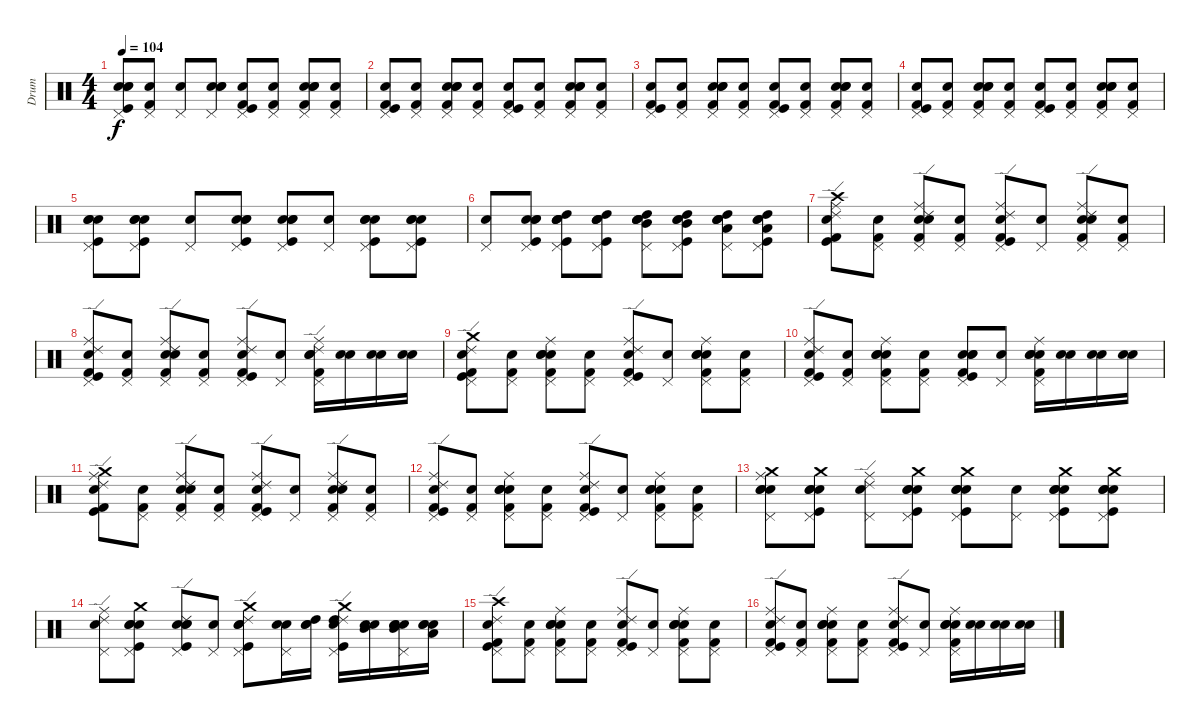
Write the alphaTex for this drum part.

\track ("Drum" "Drum") {instrument percussion}
\staff {score}
\articulation defaults
\ts (4 4)
\tempo 104
\clef neutral
\ks c
("Snare (hit)" "Kick (hit)" "Pedal Hi-Hat (hit)" "Snare (hit) 2" "Electric Snare (hit)").8{dy f} ("Snare (hit)" "Pedal Hi-Hat (hit)" "Kick (hit) 2").8 ("Snare (hit)" "Pedal Hi-Hat (hit)").8 ("Snare (hit)" "Pedal Hi-Hat (hit)" "Electric Snare (hit)" "Snare (hit) 2").8 ("Snare (hit)" "Kick (hit) 2" "Pedal Hi-Hat (hit)" "Kick (hit)").8 ("Snare (hit)" "Pedal Hi-Hat (hit)" "Kick (hit) 2").8 ("Snare (hit)" "Kick (hit) 2" "Snare (hit) 2" "Electric Snare (hit)" "Pedal Hi-Hat (hit)").8 ("Snare (hit)" "Pedal Hi-Hat (hit)" "Kick (hit) 2").8 |
("Snare (hit)" "Kick (hit) 2" "Pedal Hi-Hat (hit)" "Kick (hit)").8 ("Snare (hit)" "Pedal Hi-Hat (hit)" "Kick (hit) 2").8 ("Snare (hit)" "Kick (hit) 2" "Electric Snare (hit)" "Snare (hit) 2" "Pedal Hi-Hat (hit)").8 ("Snare (hit)" "Pedal Hi-Hat (hit)" "Kick (hit) 2").8 ("Snare (hit)" "Kick (hit) 2" "Pedal Hi-Hat (hit)" "Kick (hit)").8 ("Snare (hit)" "Pedal Hi-Hat (hit)" "Kick (hit) 2").8 ("Snare (hit)" "Kick (hit) 2" "Snare (hit) 2" "Electric Snare (hit)" "Pedal Hi-Hat (hit)").8 ("Snare (hit)" "Pedal Hi-Hat (hit)" "Kick (hit) 2").8 |
("Snare (hit)" "Kick (hit) 2" "Pedal Hi-Hat (hit)" "Kick (hit)").8 ("Snare (hit)" "Pedal Hi-Hat (hit)" "Kick (hit) 2").8 ("Snare (hit)" "Kick (hit) 2" "Electric Snare (hit)" "Snare (hit) 2" "Pedal Hi-Hat (hit)").8 ("Snare (hit)" "Pedal Hi-Hat (hit)" "Kick (hit) 2").8 ("Snare (hit)" "Kick (hit)" "Pedal Hi-Hat (hit)" "Kick (hit) 2").8 ("Snare (hit)" "Pedal Hi-Hat (hit)" "Kick (hit) 2").8 ("Snare (hit)" "Kick (hit) 2" "Snare (hit) 2" "Electric Snare (hit)" "Pedal Hi-Hat (hit)").8 ("Snare (hit)" "Pedal Hi-Hat (hit)" "Kick (hit) 2").8 |
("Snare (hit)" "Kick (hit)" "Pedal Hi-Hat (hit)" "Kick (hit) 2").8 ("Snare (hit)" "Pedal Hi-Hat (hit)" "Kick (hit) 2").8 ("Snare (hit)" "Kick (hit) 2" "Electric Snare (hit)" "Snare (hit) 2" "Pedal Hi-Hat (hit)").8 ("Snare (hit)" "Pedal Hi-Hat (hit)" "Kick (hit) 2").8 ("Snare (hit)" "Kick (hit)" "Pedal Hi-Hat (hit)" "Kick (hit) 2").8 ("Snare (hit)" "Pedal Hi-Hat (hit)" "Kick (hit) 2").8 ("Snare (hit)" "Kick (hit) 2" "Snare (hit) 2" "Electric Snare (hit)" "Pedal Hi-Hat (hit)").8 ("Snare (hit)" "Pedal Hi-Hat (hit)" "Kick (hit) 2").8 |
("Snare (hit)" "Pedal Hi-Hat (hit)" "Snare (hit) 2" "Kick (hit)" "Electric Snare (hit)").8 ("Snare (hit)" "Kick (hit)" "Pedal Hi-Hat (hit)" "Snare (hit) 2" "Electric Snare (hit)").8 ("Snare (hit)" "Pedal Hi-Hat (hit)").8 ("Snare (hit)" "Snare (hit) 2" "Pedal Hi-Hat (hit)" "Kick (hit)" "Electric Snare (hit)").8 ("Snare (hit)" "Kick (hit)" "Pedal Hi-Hat (hit)" "Snare (hit) 2" "Electric Snare (hit)").8 ("Snare (hit)" "Pedal Hi-Hat (hit)").8 ("Snare (hit)" "Snare (hit) 2" "Kick (hit)" "Pedal Hi-Hat (hit)" "Electric Snare (hit)").8 ("Snare (hit)" "Pedal Hi-Hat (hit)" "Snare (hit) 2" "Kick (hit)" "Electric Snare (hit)").8 |
("Snare (hit)" "Pedal Hi-Hat (hit)").8 ("Snare (hit)" "Electric Snare (hit)" "Pedal Hi-Hat (hit)" "Kick (hit)" "Snare (hit) 2").8 ("Snare (hit)" "Electric Snare (hit)" "High Tom (hit)" "Snare (hit) 2" "Kick (hit)" "Pedal Hi-Hat (hit)").8 ("Snare (hit)" "Electric Snare (hit)" "High Tom (hit)" "Kick (hit)" "Snare (hit) 2" "Pedal Hi-Hat (hit)").8 ("Snare (hit)" "Electric Snare (hit)" "Mid Tom (hit)" "High Tom (hit)" "Pedal Hi-Hat (hit)" "Snare (hit) 2").8 ("Snare (hit)" "Electric Snare (hit)" "Mid Tom (hit)" "High Tom (hit)" "Kick (hit)" "Pedal Hi-Hat (hit)").8 ("Snare (hit)" "Electric Snare (hit)" "Low Tom (hit)" "High Tom (hit)" "Snare (hit) 2" "Pedal Hi-Hat (hit)").8 ("Snare (hit)" "Electric Snare (hit)" "Low Tom (hit)" "High Tom (hit)" "Kick (hit)" "Pedal Hi-Hat (hit)").8 |
("Snare (hit)" "Kick (hit) 2" "Ride (middle)" "Ride (edge) 2" "Crash high (hit)" "Kick (hit)").8 ("Snare (hit)" "Kick (hit) 2" "Pedal Hi-Hat (hit)").8 ("Snare (hit)" "Ride (middle)" "Ride (edge) 2" "Pedal Hi-Hat (hit)" "Snare (hit) 2" "Kick (hit) 2").8 ("Snare (hit)" "Kick (hit) 2" "Pedal Hi-Hat (hit)").8 ("Snare (hit)" "Kick (hit) 2" "Ride (middle)" "Ride (edge) 2" "Pedal Hi-Hat (hit)" "Kick (hit)").8 ("Snare (hit)" "Pedal Hi-Hat (hit)").8 ("Snare (hit)" "Ride (middle)" "Ride (edge) 2" "Pedal Hi-Hat (hit)" "Electric Snare (hit)" "Kick (hit) 2").8 ("Snare (hit)" "Kick (hit) 2" "Pedal Hi-Hat (hit)").8 |
("Snare (hit)" "Kick (hit) 2" "Ride (middle)" "Ride (edge) 2" "Kick (hit)" "Pedal Hi-Hat (hit)").8 ("Snare (hit)" "Kick (hit) 2" "Pedal Hi-Hat (hit)").8 ("Snare (hit)" "Ride (middle)" "Ride (edge) 2" "Kick (hit) 2" "Electric Snare (hit)" "Pedal Hi-Hat (hit)").8 ("Snare (hit)" "Kick (hit) 2" "Pedal Hi-Hat (hit)").8 ("Snare (hit)" "Kick (hit) 2" "Ride (middle)" "Ride (edge) 2" "Kick (hit)" "Pedal Hi-Hat (hit)").8 ("Snare (hit)" "Pedal Hi-Hat (hit)").8 ("Snare (hit)" "Ride (middle)" "Ride (edge) 2" "Kick (hit) 2" "Snare (hit) 2" "Pedal Hi-Hat (hit)").16 ("Snare (hit)" "Snare (hit) 2").16 ("Snare (hit)" "Snare (hit) 2").16 ("Snare (hit)" "Snare (hit) 2").16 |
("Snare (hit)" "Kick (hit)" "Pedal Hi-Hat (hit)" "Crash medium (hit)" "Ride (edge) 2" "Kick (hit) 2").8 ("Snare (hit)" "Pedal Hi-Hat (hit)" "Kick (hit) 2").8 ("Snare (hit)" "Kick (hit) 2" "Electric Snare (hit)" "Snare (hit) 2" "Pedal Hi-Hat (hit)" "Ride (middle)").8 ("Snare (hit)" "Pedal Hi-Hat (hit)" "Kick (hit) 2").8 ("Snare (hit)" "Kick (hit)" "Pedal Hi-Hat (hit)" "Ride (edge) 2" "Ride (middle)" "Kick (hit) 2").8 ("Snare (hit)" "Pedal Hi-Hat (hit)").8 ("Snare (hit)" "Kick (hit) 2" "Snare (hit) 2" "Electric Snare (hit)" "Pedal Hi-Hat (hit)" "Ride (middle)").8 ("Snare (hit)" "Pedal Hi-Hat (hit)" "Kick (hit) 2").8 |
("Snare (hit)" "Pedal Hi-Hat (hit)" "Kick (hit)" "Ride (edge) 2" "Ride (middle)" "Kick (hit) 2").8 ("Snare (hit)" "Pedal Hi-Hat (hit)" "Kick (hit) 2").8 ("Snare (hit)" "Pedal Hi-Hat (hit)" "Snare (hit) 2" "Electric Snare (hit)" "Kick (hit) 2" "Ride (middle)").8 ("Snare (hit)" "Pedal Hi-Hat (hit)" "Kick (hit) 2").8 ("Snare (hit)" "Snare (hit) 2" "Electric Snare (hit)" "Pedal Hi-Hat (hit)" "Kick (hit)" "Kick (hit) 2").8 ("Snare (hit)" "Pedal Hi-Hat (hit)").8 ("Snare (hit)" "Pedal Hi-Hat (hit)" "Electric Snare (hit)" "Snare (hit) 2" "Kick (hit) 2" "Ride (middle)").16 ("Snare (hit)" "Snare (hit) 2").16 ("Snare (hit)" "Snare (hit) 2").16 ("Snare (hit)" "Snare (hit) 2").16 |
("Snare (hit)" "Kick (hit) 2" "Ride (middle)" "Ride (edge) 2" "Crash medium (hit)" "Kick (hit)").8 ("Snare (hit)" "Kick (hit) 2" "Pedal Hi-Hat (hit)").8 ("Snare (hit)" "Ride (middle)" "Ride (edge) 2" "Pedal Hi-Hat (hit)" "Snare (hit) 2" "Kick (hit) 2").8 ("Snare (hit)" "Kick (hit) 2" "Pedal Hi-Hat (hit)").8 ("Snare (hit)" "Kick (hit) 2" "Ride (middle)" "Ride (edge) 2" "Pedal Hi-Hat (hit)" "Kick (hit)").8 ("Snare (hit)" "Pedal Hi-Hat (hit)").8 ("Snare (hit)" "Ride (middle)" "Ride (edge) 2" "Pedal Hi-Hat (hit)" "Electric Snare (hit)" "Kick (hit) 2").8 ("Snare (hit)" "Kick (hit) 2" "Pedal Hi-Hat (hit)").8 |
("Snare (hit)" "Kick (hit)" "Pedal Hi-Hat (hit)" "Ride (edge) 2" "Ride (middle)" "Kick (hit) 2").8 ("Snare (hit)" "Pedal Hi-Hat (hit)" "Kick (hit) 2").8 ("Snare (hit)" "Kick (hit) 2" "Electric Snare (hit)" "Snare (hit) 2" "Pedal Hi-Hat (hit)" "Ride (middle)").8 ("Snare (hit)" "Pedal Hi-Hat (hit)" "Kick (hit) 2").8 ("Snare (hit)" "Kick (hit)" "Pedal Hi-Hat (hit)" "Ride (edge) 2" "Ride (middle)" "Kick (hit) 2").8 ("Snare (hit)" "Pedal Hi-Hat (hit)").8 ("Snare (hit)" "Kick (hit) 2" "Snare (hit) 2" "Electric Snare (hit)" "Pedal Hi-Hat (hit)" "Ride (middle)").8 ("Snare (hit)" "Pedal Hi-Hat (hit)" "Kick (hit) 2").8 |
("Snare (hit)" "Crash medium (hit)" "Snare (hit) 2" "Ride (middle)" "Electric Snare (hit)" "Pedal Hi-Hat (hit)").8 ("Snare (hit)" "Pedal Hi-Hat (hit)" "Kick (hit)" "Crash medium (hit)" "Snare (hit) 2" "Electric Snare (hit)").8 ("Snare (hit)" "Ride (middle)" "Pedal Hi-Hat (hit)" "Ride (edge) 2").8 ("Snare (hit)" "Electric Snare (hit)" "Snare (hit) 2" "Kick (hit)" "Pedal Hi-Hat (hit)" "Crash medium (hit)").8 ("Snare (hit)" "Electric Snare (hit)" "Crash medium (hit)" "Snare (hit) 2" "Kick (hit)" "Pedal Hi-Hat (hit)").8 ("Snare (hit)" "Pedal Hi-Hat (hit)").8 ("Snare (hit)" "Kick (hit)" "Electric Snare (hit)" "Snare (hit) 2" "Crash medium (hit)" "Pedal Hi-Hat (hit)").8 ("Snare (hit)" "Pedal Hi-Hat (hit)" "Crash medium (hit)" "Kick (hit)" "Snare (hit) 2" "Electric Snare (hit)").8 |
("Snare (hit)" "Pedal Hi-Hat (hit)" "Ride (edge) 2" "Ride (middle)").8 ("Snare (hit)" "Electric Snare (hit)" "Kick (hit)" "Pedal Hi-Hat (hit)" "Crash medium (hit)" "Snare (hit) 2").8 ("Snare (hit)" "Ride (edge) 2" "Kick (hit)" "Snare (hit) 2" "Electric Snare (hit)" "Pedal Hi-Hat (hit)").8 ("Snare (hit)" "Pedal Hi-Hat (hit)").8 ("Snare (hit)" "Kick (hit)" "Snare (hit) 2" "Ride (edge) 2" "Crash medium (hit)" "Pedal Hi-Hat (hit)").8 ("Snare (hit)" "Snare (hit) 2" "Pedal Hi-Hat (hit)").16 ("Snare (hit)" "High Tom (hit)" "Snare (hit) 2").16 ("Snare (hit)" "Ride (edge) 2" "Crash medium (hit)" "Kick (hit)" "High Tom (hit)" "Pedal Hi-Hat (hit)").16 ("Snare (hit)" "Mid Tom (hit)" "Snare (hit) 2").16 ("Snare (hit)" "Snare (hit) 2" "Electric Snare (hit)" "Pedal Hi-Hat (hit)" "Mid Tom (hit)").16 ("Snare (hit)" "Low Tom (hit)" "Electric Snare (hit)" "Snare (hit) 2").16 |
("Snare (hit)" "Kick (hit)" "Pedal Hi-Hat (hit)" "Crash high (hit)" "Ride (edge) 2" "Kick (hit) 2").8 ("Snare (hit)" "Pedal Hi-Hat (hit)" "Kick (hit) 2").8 ("Snare (hit)" "Kick (hit) 2" "Electric Snare (hit)" "Snare (hit) 2" "Pedal Hi-Hat (hit)" "Ride (middle)").8 ("Snare (hit)" "Pedal Hi-Hat (hit)" "Kick (hit) 2").8 ("Snare (hit)" "Kick (hit)" "Pedal Hi-Hat (hit)" "Ride (edge) 2" "Ride (middle)" "Kick (hit) 2").8 ("Snare (hit)" "Pedal Hi-Hat (hit)").8 ("Snare (hit)" "Kick (hit) 2" "Snare (hit) 2" "Electric Snare (hit)" "Pedal Hi-Hat (hit)" "Ride (middle)").8 ("Snare (hit)" "Pedal Hi-Hat (hit)" "Kick (hit) 2").8 |
("Snare (hit)" "Pedal Hi-Hat (hit)" "Kick (hit)" "Ride (edge) 2" "Ride (middle)" "Kick (hit) 2").8 ("Snare (hit)" "Pedal Hi-Hat (hit)" "Kick (hit) 2").8 ("Snare (hit)" "Pedal Hi-Hat (hit)" "Snare (hit) 2" "Electric Snare (hit)" "Kick (hit) 2" "Ride (middle)").8 ("Snare (hit)" "Pedal Hi-Hat (hit)" "Kick (hit) 2").8 ("Snare (hit)" "Pedal Hi-Hat (hit)" "Kick (hit)" "Ride (edge) 2" "Ride (middle)" "Kick (hit) 2").8 ("Snare (hit)" "Pedal Hi-Hat (hit)").8 ("Snare (hit)" "Pedal Hi-Hat (hit)" "Electric Snare (hit)" "Snare (hit) 2" "Kick (hit) 2" "Ride (middle)").16 ("Snare (hit)" "Snare (hit) 2").16 ("Snare (hit)" "Snare (hit) 2").16 ("Snare (hit)" "Snare (hit) 2").16
